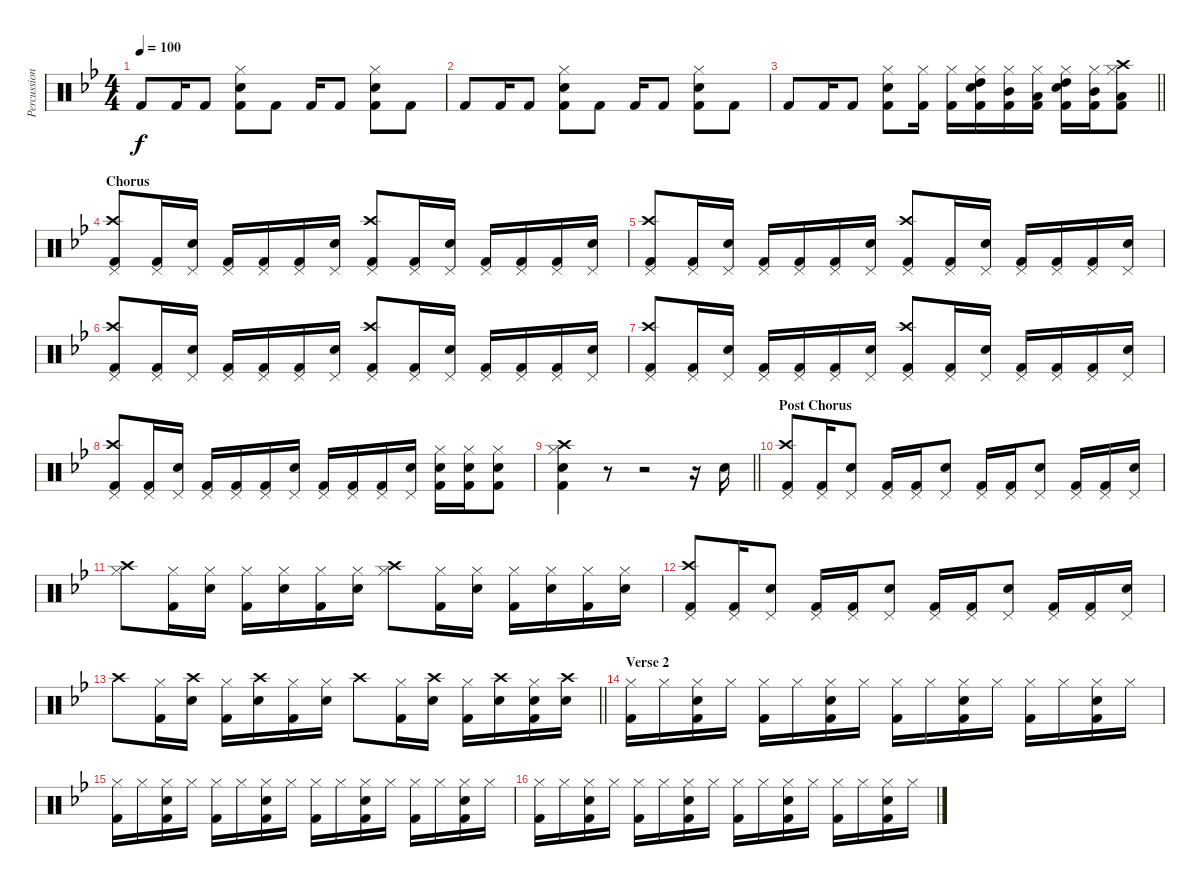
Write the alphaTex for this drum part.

\track ("Percussion" "Percussion") {instrument percussion}
\staff {score}
\articulation defaults
\ts (4 4)
\tempo 100
\clef neutral
\ks bb "Kick (hit) 2".8{dy f} "Kick (hit) 2".16 "Kick (hit) 2".8
("Electric Snare (hit)" "Hi-Hat (closed)" "Kick (hit) 2").8 "Kick (hit) 2".8 "Kick (hit) 2".16 "Kick (hit) 2".8 ("Electric Snare (hit)" "Hi-Hat (closed)" "Kick (hit) 2").8 "Kick (hit) 2".8 |
"Kick (hit) 2".8 "Kick (hit) 2".16 "Kick (hit) 2".8 ("Electric Snare (hit)" "Hi-Hat (closed)" "Kick (hit) 2").8 "Kick (hit) 2".8 "Kick (hit) 2".16 "Kick (hit) 2".8 ("Electric Snare (hit)" "Hi-Hat (closed)" "Kick (hit) 2").8 "Kick (hit) 2".8 |
\barLineRight lightlight "Kick (hit) 2".8 "Kick (hit) 2".16 "Kick (hit) 2".8
("Electric Snare (hit)" "Hi-Hat (closed)" "Kick (hit) 2").8 ("Hi-Hat (closed)" "Kick (hit) 2").16 ("Hi-Hat (closed)" "Kick (hit) 2").16 ("High Tom (hit)" "Electric Snare (hit)" "Hi-Hat (closed)" "Kick (hit) 2").16 ("Mid Tom (hit)" "Hi-Hat (closed)" "Kick (hit) 2").16 ("Low Tom (hit)" "Hi-Hat (closed)" "Kick (hit) 2").16 ("High Tom (hit)" "Electric Snare (hit)" "Hi-Hat (closed)" "Kick (hit) 2").16 ("Mid Tom (hit)" "Hi-Hat (closed)" "Kick (hit) 2").16 ("Crash high (hit)" "Low Tom (hit)" "Hi-Hat (closed)" "Kick (hit) 2").8 |
\section ("" "Chorus")
("Crash high (hit)" "Pedal Hi-Hat (hit)" "Kick (hit) 2").8 ("Pedal Hi-Hat (hit)" "Kick (hit) 2").16 ("Electric Snare (hit)" "Pedal Hi-Hat (hit)").16 ("Pedal Hi-Hat (hit)" "Kick (hit) 2").16 ("Pedal Hi-Hat (hit)" "Kick (hit) 2").16 ("Pedal Hi-Hat (hit)" "Kick (hit) 2").16 ("Electric Snare (hit)" "Pedal Hi-Hat (hit)").16 ("Crash high (hit)" "Pedal Hi-Hat (hit)" "Kick (hit) 2").8 ("Pedal Hi-Hat (hit)" "Kick (hit) 2").16 ("Electric Snare (hit)" "Pedal Hi-Hat (hit)").16 ("Pedal Hi-Hat (hit)" "Kick (hit) 2").16 ("Pedal Hi-Hat (hit)" "Kick (hit) 2").16 ("Pedal Hi-Hat (hit)" "Kick (hit) 2").16 ("Electric Snare (hit)" "Pedal Hi-Hat (hit)").16 |
("Crash high (hit)" "Pedal Hi-Hat (hit)" "Kick (hit) 2").8 ("Pedal Hi-Hat (hit)" "Kick (hit) 2").16 ("Electric Snare (hit)" "Pedal Hi-Hat (hit)").16 ("Pedal Hi-Hat (hit)" "Kick (hit) 2").16 ("Pedal Hi-Hat (hit)" "Kick (hit) 2").16 ("Pedal Hi-Hat (hit)" "Kick (hit) 2").16 ("Electric Snare (hit)" "Pedal Hi-Hat (hit)").16 ("Crash high (hit)" "Pedal Hi-Hat (hit)" "Kick (hit) 2").8 ("Pedal Hi-Hat (hit)" "Kick (hit) 2").16 ("Electric Snare (hit)" "Pedal Hi-Hat (hit)").16 ("Pedal Hi-Hat (hit)" "Kick (hit) 2").16 ("Pedal Hi-Hat (hit)" "Kick (hit) 2").16 ("Pedal Hi-Hat (hit)" "Kick (hit) 2").16 ("Electric Snare (hit)" "Pedal Hi-Hat (hit)").16 |
("Crash high (hit)" "Pedal Hi-Hat (hit)" "Kick (hit) 2").8 ("Pedal Hi-Hat (hit)" "Kick (hit) 2").16 ("Electric Snare (hit)" "Pedal Hi-Hat (hit)").16 ("Pedal Hi-Hat (hit)" "Kick (hit) 2").16 ("Pedal Hi-Hat (hit)" "Kick (hit) 2").16 ("Pedal Hi-Hat (hit)" "Kick (hit) 2").16 ("Electric Snare (hit)" "Pedal Hi-Hat (hit)").16 ("Crash high (hit)" "Pedal Hi-Hat (hit)" "Kick (hit) 2").8 ("Pedal Hi-Hat (hit)" "Kick (hit) 2").16 ("Electric Snare (hit)" "Pedal Hi-Hat (hit)").16 ("Pedal Hi-Hat (hit)" "Kick (hit) 2").16 ("Pedal Hi-Hat (hit)" "Kick (hit) 2").16 ("Pedal Hi-Hat (hit)" "Kick (hit) 2").16 ("Electric Snare (hit)" "Pedal Hi-Hat (hit)").16 |
("Crash high (hit)" "Pedal Hi-Hat (hit)" "Kick (hit) 2").8 ("Pedal Hi-Hat (hit)" "Kick (hit) 2").16 ("Electric Snare (hit)" "Pedal Hi-Hat (hit)").16 ("Pedal Hi-Hat (hit)" "Kick (hit) 2").16 ("Pedal Hi-Hat (hit)" "Kick (hit) 2").16 ("Pedal Hi-Hat (hit)" "Kick (hit) 2").16 ("Electric Snare (hit)" "Pedal Hi-Hat (hit)").16 ("Crash high (hit)" "Pedal Hi-Hat (hit)" "Kick (hit) 2").8 ("Pedal Hi-Hat (hit)" "Kick (hit) 2").16 ("Electric Snare (hit)" "Pedal Hi-Hat (hit)").16 ("Pedal Hi-Hat (hit)" "Kick (hit) 2").16 ("Pedal Hi-Hat (hit)" "Kick (hit) 2").16 ("Pedal Hi-Hat (hit)" "Kick (hit) 2").16 ("Electric Snare (hit)" "Pedal Hi-Hat (hit)").16 |
("Crash high (hit)" "Pedal Hi-Hat (hit)" "Kick (hit) 2").8 ("Pedal Hi-Hat (hit)" "Kick (hit) 2").16 ("Electric Snare (hit)" "Pedal Hi-Hat (hit)").16 ("Pedal Hi-Hat (hit)" "Kick (hit) 2").16 ("Pedal Hi-Hat (hit)" "Kick (hit) 2").16 ("Pedal Hi-Hat (hit)" "Kick (hit) 2").16 ("Electric Snare (hit)" "Pedal Hi-Hat (hit)").16 ("Pedal Hi-Hat (hit)" "Kick (hit) 2").16 ("Pedal Hi-Hat (hit)" "Kick (hit) 2").16 ("Pedal Hi-Hat (hit)" "Kick (hit) 2").16 ("Electric Snare (hit)" "Pedal Hi-Hat (hit)").16 ("Electric Snare (hit)" "Hi-Hat (closed)" "Kick (hit) 2").16 ("Electric Snare (hit)" "Hi-Hat (closed)" "Kick (hit) 2").16 ("Electric Snare (hit)" "Hi-Hat (closed)" "Kick (hit) 2").8 |
\barLineRight lightlight
("Crash high (hit)" "Electric Snare (hit)" "Hi-Hat (closed)" "Kick (hit) 2").4 r.8 r.2 r.16 "Electric Snare (hit)".16 |
\section ("" "Post Chorus")
("Crash high (hit)" "Pedal Hi-Hat (hit)" "Kick (hit) 2").8 ("Pedal Hi-Hat (hit)" "Kick (hit) 2").16 ("Electric Snare (hit)" "Pedal Hi-Hat (hit)").8 ("Pedal Hi-Hat (hit)" "Kick (hit) 2").16 ("Pedal Hi-Hat (hit)" "Kick (hit) 2").16 ("Electric Snare (hit)" "Pedal Hi-Hat (hit)").8 ("Pedal Hi-Hat (hit)" "Kick (hit) 2").16 ("Pedal Hi-Hat (hit)" "Kick (hit) 2").16 ("Electric Snare (hit)" "Pedal Hi-Hat (hit)").8 ("Pedal Hi-Hat (hit)" "Kick (hit) 2").16 ("Pedal Hi-Hat (hit)" "Kick (hit) 2").16 ("Electric Snare (hit)" "Pedal Hi-Hat (hit)").16 |
("Crash high (hit)" "Hi-Hat (closed)").8 ("Hi-Hat (closed)" "Kick (hit) 2").16 ("Electric Snare (hit)" "Hi-Hat (closed)").16 ("Hi-Hat (closed)" "Kick (hit) 2").16 ("Electric Snare (hit)" "Hi-Hat (closed)").16 ("Hi-Hat (closed)" "Kick (hit) 2").16 ("Electric Snare (hit)" "Hi-Hat (closed)").16 ("Crash high (hit)" "Hi-Hat (closed)").8 ("Hi-Hat (closed)" "Kick (hit) 2").16 ("Electric Snare (hit)" "Hi-Hat (closed)").16 ("Hi-Hat (closed)" "Kick (hit) 2").16 ("Electric Snare (hit)" "Hi-Hat (closed)").16 ("Hi-Hat (closed)" "Kick (hit) 2").16 ("Electric Snare (hit)" "Hi-Hat (closed)").16 |
("Crash high (hit)" "Pedal Hi-Hat (hit)" "Kick (hit) 2").8 ("Pedal Hi-Hat (hit)" "Kick (hit) 2").16 ("Electric Snare (hit)" "Pedal Hi-Hat (hit)").8 ("Pedal Hi-Hat (hit)" "Kick (hit) 2").16 ("Pedal Hi-Hat (hit)" "Kick (hit) 2").16 ("Electric Snare (hit)" "Pedal Hi-Hat (hit)").8 ("Pedal Hi-Hat (hit)" "Kick (hit) 2").16 ("Pedal Hi-Hat (hit)" "Kick (hit) 2").16 ("Electric Snare (hit)" "Pedal Hi-Hat (hit)").8 ("Pedal Hi-Hat (hit)" "Kick (hit) 2").16 ("Pedal Hi-Hat (hit)" "Kick (hit) 2").16 ("Electric Snare (hit)" "Pedal Hi-Hat (hit)").16 |
\barLineRight lightlight "Crash high (hit)".8
("Hi-Hat (closed)" "Kick (hit) 2").16 ("Crash high (hit)" "Electric Snare (hit)").16 ("Hi-Hat (closed)" "Kick (hit) 2").16 ("Crash high (hit)" "Electric Snare (hit)").16 ("Hi-Hat (closed)" "Kick (hit) 2").16 ("Electric Snare (hit)" "Hi-Hat (closed)").16 "Crash high (hit)".8 ("Hi-Hat (closed)" "Kick (hit) 2").16 ("Crash high (hit)" "Electric Snare (hit)").16 ("Hi-Hat (closed)" "Kick (hit) 2").16 ("Crash high (hit)" "Electric Snare (hit)").16 ("Electric Snare (hit)" "Hi-Hat (closed)" "Kick (hit) 2").16 ("Crash high (hit)" "Electric Snare (hit)").16 |
\section ("" "Verse 2")
("Hi-Hat (closed)" "Kick (hit) 2").16 "Hi-Hat (closed)".16 ("Electric Snare (hit)" "Hi-Hat (closed)" "Kick (hit) 2").16 "Hi-Hat (closed)".16 ("Hi-Hat (closed)" "Kick (hit) 2").16 "Hi-Hat (closed)".16 ("Electric Snare (hit)" "Hi-Hat (closed)" "Kick (hit) 2").16 "Hi-Hat (closed)".16 ("Hi-Hat (closed)" "Kick (hit) 2").16 "Hi-Hat (closed)".16 ("Electric Snare (hit)" "Hi-Hat (closed)" "Kick (hit) 2").16 "Hi-Hat (closed)".16 ("Hi-Hat (closed)" "Kick (hit) 2").16 "Hi-Hat (closed)".16 ("Electric Snare (hit)" "Hi-Hat (closed)" "Kick (hit) 2").16 "Hi-Hat (closed)".16 |
("Hi-Hat (closed)" "Kick (hit) 2").16 "Hi-Hat (closed)".16 ("Electric Snare (hit)" "Hi-Hat (closed)" "Kick (hit) 2").16 "Hi-Hat (closed)".16 ("Hi-Hat (closed)" "Kick (hit) 2").16 "Hi-Hat (closed)".16 ("Electric Snare (hit)" "Hi-Hat (closed)" "Kick (hit) 2").16 "Hi-Hat (closed)".16 ("Hi-Hat (closed)" "Kick (hit) 2").16 "Hi-Hat (closed)".16 ("Electric Snare (hit)" "Hi-Hat (closed)" "Kick (hit) 2").16 "Hi-Hat (closed)".16 ("Hi-Hat (closed)" "Kick (hit) 2").16 "Hi-Hat (closed)".16 ("Electric Snare (hit)" "Hi-Hat (closed)" "Kick (hit) 2").16 "Hi-Hat (closed)".16 |
("Hi-Hat (closed)" "Kick (hit) 2").16 "Hi-Hat (closed)".16 ("Electric Snare (hit)" "Hi-Hat (closed)" "Kick (hit) 2").16 "Hi-Hat (closed)".16 ("Hi-Hat (closed)" "Kick (hit) 2").16 "Hi-Hat (closed)".16 ("Electric Snare (hit)" "Hi-Hat (closed)" "Kick (hit) 2").16 "Hi-Hat (closed)".16 ("Hi-Hat (closed)" "Kick (hit) 2").16 "Hi-Hat (closed)".16 ("Electric Snare (hit)" "Hi-Hat (closed)" "Kick (hit) 2").16 "Hi-Hat (closed)".16 ("Hi-Hat (closed)" "Kick (hit) 2").16 "Hi-Hat (closed)".16 ("Electric Snare (hit)" "Hi-Hat (closed)" "Kick (hit) 2").16 "Hi-Hat (closed)".16
